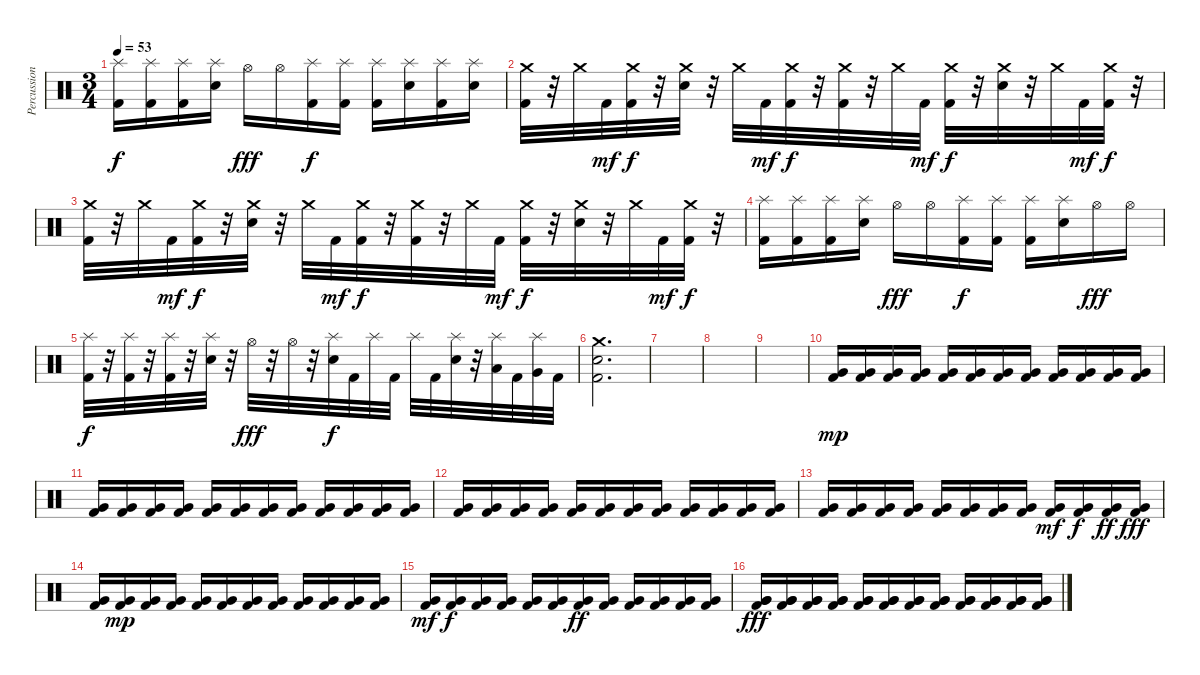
\track ("Percussion" "Percussion") {instrument percussion}
\staff {score}
\articulation defaults
\ts (3 4)
\tempo 53
\clef neutral
\ks c
("Splash (hit)" "Kick (hit) 2").16{dy f} ("Splash (hit)" "Kick (hit) 2").16 ("Splash (hit)" "Kick (hit) 2").16 ("Splash (hit)" "Snare (hit) 2").16 "Hi-Hat (open)".16{dy fff} "Hi-Hat (open)".16 ("Splash (hit)" "Kick (hit) 2").16{dy f} ("Splash (hit)" "Kick (hit) 2").16 ("Splash (hit)" "Kick (hit) 2").16 ("Splash (hit)" "Snare (hit) 2").16 ("Splash (hit)" "Kick (hit) 2").16 ("Splash (hit)" "Snare (hit) 2").16 |
("Crash medium (hit)" "Kick (hit) 2").32 r.32 "Crash medium (hit)".32 "Kick (hit) 2".32{dy mf} ("Crash medium (hit)" "Kick (hit) 2").32{dy f} r.32 ("Crash medium (hit)" "Snare (hit) 2").32 r.32 "Crash medium (hit)".32 "Kick (hit) 2".32{dy mf} ("Crash medium (hit)" "Kick (hit) 2").32{dy f} r.32 ("Crash medium (hit)" "Kick (hit) 2").32 r.32 "Crash medium (hit)".32 "Kick (hit) 2".32{dy mf} ("Crash medium (hit)" "Kick (hit) 2").32{dy f} r.32 ("Crash medium (hit)" "Snare (hit) 2").32 r.32 "Crash medium (hit)".32 "Kick (hit) 2".32{dy mf} ("Crash medium (hit)" "Kick (hit) 2").32{dy f} r.32 |
("Crash medium (hit)" "Kick (hit) 2").32 r.32 "Crash medium (hit)".32 "Kick (hit) 2".32{dy mf} ("Crash medium (hit)" "Kick (hit) 2").32{dy f} r.32 ("Crash medium (hit)" "Snare (hit) 2").32 r.32 "Crash medium (hit)".32 "Kick (hit) 2".32{dy mf} ("Crash medium (hit)" "Kick (hit) 2").32{dy f} r.32 ("Crash medium (hit)" "Kick (hit) 2").32 r.32 "Crash medium (hit)".32 "Kick (hit) 2".32{dy mf} ("Crash medium (hit)" "Kick (hit) 2").32{dy f} r.32 ("Crash medium (hit)" "Snare (hit) 2").32 r.32 "Crash medium (hit)".32 "Kick (hit) 2".32{dy mf} ("Crash medium (hit)" "Kick (hit) 2").32{dy f} r.32 |
("Splash (hit)" "Kick (hit) 2").16 ("Splash (hit)" "Kick (hit) 2").16 ("Splash (hit)" "Kick (hit) 2").16 ("Splash (hit)" "Snare (hit) 2").16 "Hi-Hat (open)".16{dy fff} "Hi-Hat (open)".16 ("Splash (hit)" "Kick (hit) 2").16{dy f} ("Splash (hit)" "Kick (hit) 2").16 ("Splash (hit)" "Kick (hit) 2").16 ("Splash (hit)" "Snare (hit) 2").16 "Hi-Hat (open)".16{dy fff} "Hi-Hat (open)".16 |
("Splash (hit)" "Kick (hit) 2").32{dy f} r.32 ("Splash (hit)" "Kick (hit) 2").32 r.32 ("Splash (hit)" "Kick (hit) 2").32 r.32 ("Splash (hit)" "Snare (hit) 2").32 r.32 "Hi-Hat (open)".32{dy fff} r.32 "Hi-Hat (open)".32 r.32 ("Splash (hit)" "Snare (hit) 2").32{dy f} "Kick (hit) 2".32 "Splash (hit)".32 "Kick (hit) 2".32 "Splash (hit)".32 "Kick (hit) 2".32 ("Splash (hit)" "Snare (hit) 2").32 r.32 ("Splash (hit)" "Low Tom (hit)").32 "Kick (hit) 2".32 ("Splash (hit)" "Very Low Tom (hit)").32 "Kick (hit) 2".32 |
("Crash medium (hit)" "Snare (hit) 2" "Kick (hit) 2").2{d} |
|
|
|
("Very Low Tom (hit)" "Kick (hit) 2").16{dy mp} ("Very Low Tom (hit)" "Kick (hit) 2").16 ("Very Low Tom (hit)" "Kick (hit) 2").16 ("Very Low Tom (hit)" "Kick (hit) 2").16 ("Very Low Tom (hit)" "Kick (hit) 2").16 ("Very Low Tom (hit)" "Kick (hit) 2").16 ("Very Low Tom (hit)" "Kick (hit) 2").16 ("Very Low Tom (hit)" "Kick (hit) 2").16 ("Very Low Tom (hit)" "Kick (hit) 2").16 ("Very Low Tom (hit)" "Kick (hit) 2").16 ("Very Low Tom (hit)" "Kick (hit) 2").16 ("Very Low Tom (hit)" "Kick (hit) 2").16 |
("Very Low Tom (hit)" "Kick (hit) 2").16 ("Very Low Tom (hit)" "Kick (hit) 2").16 ("Very Low Tom (hit)" "Kick (hit) 2").16 ("Very Low Tom (hit)" "Kick (hit) 2").16 ("Very Low Tom (hit)" "Kick (hit) 2").16 ("Very Low Tom (hit)" "Kick (hit) 2").16 ("Very Low Tom (hit)" "Kick (hit) 2").16 ("Very Low Tom (hit)" "Kick (hit) 2").16 ("Very Low Tom (hit)" "Kick (hit) 2").16 ("Very Low Tom (hit)" "Kick (hit) 2").16 ("Very Low Tom (hit)" "Kick (hit) 2").16 ("Very Low Tom (hit)" "Kick (hit) 2").16 |
("Very Low Tom (hit)" "Kick (hit) 2").16 ("Very Low Tom (hit)" "Kick (hit) 2").16 ("Very Low Tom (hit)" "Kick (hit) 2").16 ("Very Low Tom (hit)" "Kick (hit) 2").16 ("Very Low Tom (hit)" "Kick (hit) 2").16 ("Very Low Tom (hit)" "Kick (hit) 2").16 ("Very Low Tom (hit)" "Kick (hit) 2").16 ("Very Low Tom (hit)" "Kick (hit) 2").16 ("Very Low Tom (hit)" "Kick (hit) 2").16 ("Very Low Tom (hit)" "Kick (hit) 2").16 ("Very Low Tom (hit)" "Kick (hit) 2").16 ("Very Low Tom (hit)" "Kick (hit) 2").16 |
("Very Low Tom (hit)" "Kick (hit) 2").16 ("Very Low Tom (hit)" "Kick (hit) 2").16 ("Very Low Tom (hit)" "Kick (hit) 2").16 ("Very Low Tom (hit)" "Kick (hit) 2").16 ("Very Low Tom (hit)" "Kick (hit) 2").16 ("Very Low Tom (hit)" "Kick (hit) 2").16 ("Very Low Tom (hit)" "Kick (hit) 2").16 ("Very Low Tom (hit)" "Kick (hit) 2").16 ("Very Low Tom (hit)" "Kick (hit) 2").16{dy mf} ("Very Low Tom (hit)" "Kick (hit) 2").16{dy f} ("Very Low Tom (hit)" "Kick (hit) 2").16{dy ff} ("Very Low Tom (hit)" "Kick (hit) 2").16{dy fff} |
("Very Low Tom (hit)" "Kick (hit) 2").16 ("Very Low Tom (hit)" "Kick (hit) 2").16{dy mp} ("Very Low Tom (hit)" "Kick (hit) 2").16 ("Very Low Tom (hit)" "Kick (hit) 2").16 ("Very Low Tom (hit)" "Kick (hit) 2").16 ("Very Low Tom (hit)" "Kick (hit) 2").16 ("Very Low Tom (hit)" "Kick (hit) 2").16 ("Very Low Tom (hit)" "Kick (hit) 2").16 ("Very Low Tom (hit)" "Kick (hit) 2").16 ("Very Low Tom (hit)" "Kick (hit) 2").16 ("Very Low Tom (hit)" "Kick (hit) 2").16 ("Very Low Tom (hit)" "Kick (hit) 2").16 |
("Very Low Tom (hit)" "Kick (hit) 2").16{dy mf} ("Very Low Tom (hit)" "Kick (hit) 2").16{dy f} ("Very Low Tom (hit)" "Kick (hit) 2").16 ("Very Low Tom (hit)" "Kick (hit) 2").16 ("Very Low Tom (hit)" "Kick (hit) 2").16 ("Very Low Tom (hit)" "Kick (hit) 2").16 ("Very Low Tom (hit)" "Kick (hit) 2").16{dy ff} ("Very Low Tom (hit)" "Kick (hit) 2").16 ("Very Low Tom (hit)" "Kick (hit) 2").16 ("Very Low Tom (hit)" "Kick (hit) 2").16 ("Very Low Tom (hit)" "Kick (hit) 2").16 ("Very Low Tom (hit)" "Kick (hit) 2").16 |
("Very Low Tom (hit)" "Very Low Tom (hit)" "Kick (hit) 2").16{dy fff} ("Very Low Tom (hit)" "Very Low Tom (hit)" "Kick (hit) 2").16 ("Very Low Tom (hit)" "Very Low Tom (hit)" "Kick (hit) 2").16 ("Very Low Tom (hit)" "Very Low Tom (hit)" "Kick (hit) 2").16 ("Very Low Tom (hit)" "Very Low Tom (hit)" "Kick (hit) 2").16 ("Very Low Tom (hit)" "Very Low Tom (hit)" "Kick (hit) 2").16 ("Very Low Tom (hit)" "Very Low Tom (hit)" "Kick (hit) 2").16 ("Very Low Tom (hit)" "Very Low Tom (hit)" "Kick (hit) 2").16 ("Very Low Tom (hit)" "Very Low Tom (hit)" "Kick (hit) 2").16 ("Very Low Tom (hit)" "Very Low Tom (hit)" "Kick (hit) 2").16 ("Very Low Tom (hit)" "Very Low Tom (hit)" "Kick (hit) 2").16 ("Very Low Tom (hit)" "Very Low Tom (hit)" "Kick (hit) 2").16
